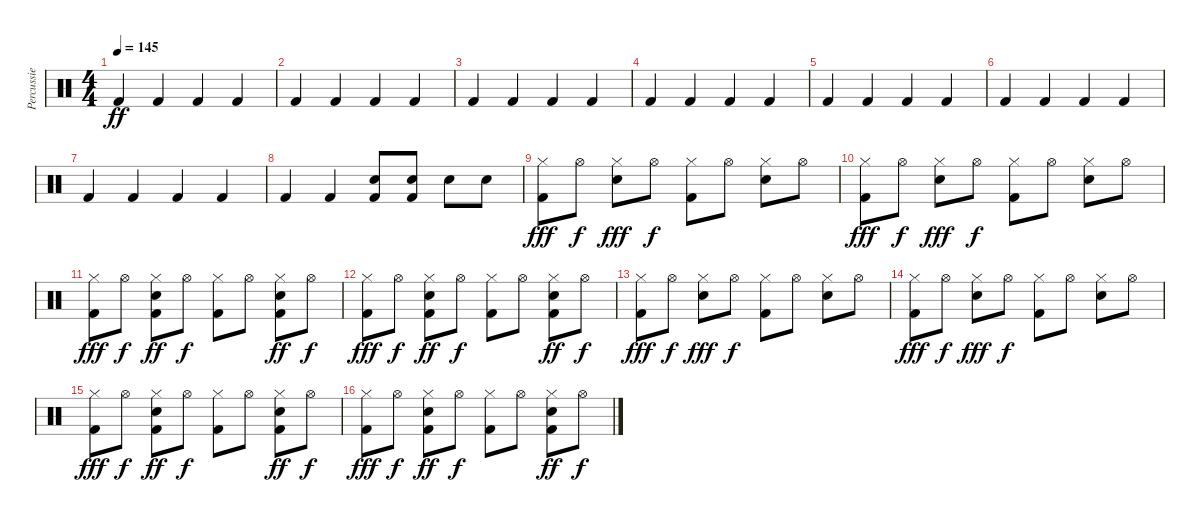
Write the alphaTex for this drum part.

\track ("Percussie" "Percussie") {instrument percussion}
\staff {score}
\articulation defaults
\ts (4 4)
\tempo 145
\clef neutral
\ks c "Kick (hit) 2".4{dy ff} "Kick (hit) 2".4 "Kick (hit) 2".4 "Kick (hit) 2".4
|
"Kick (hit) 2".4 "Kick (hit) 2".4 "Kick (hit) 2".4 "Kick (hit) 2".4 |
"Kick (hit) 2".4 "Kick (hit) 2".4 "Kick (hit) 2".4 "Kick (hit) 2".4 |
"Kick (hit) 2".4 "Kick (hit) 2".4 "Kick (hit) 2".4 "Kick (hit) 2".4 |
"Kick (hit) 2".4 "Kick (hit) 2".4 "Kick (hit) 2".4 "Kick (hit) 2".4 |
"Kick (hit) 2".4 "Kick (hit) 2".4 "Kick (hit) 2".4 "Kick (hit) 2".4 |
"Kick (hit) 2".4 "Kick (hit) 2".4 "Kick (hit) 2".4 "Kick (hit) 2".4 |
"Kick (hit) 2".4 "Kick (hit) 2".4 ("Kick (hit) 2" "Electric Snare (hit)").8 ("Kick (hit) 2" "Electric Snare (hit)").8 "Electric Snare (hit)".8 "Electric Snare (hit)".8 |
("Kick (hit) 2" "Hi-Hat (closed)").8{dy fff} "Hi-Hat (open)".8{dy f} ("Electric Snare (hit)" "Hi-Hat (closed)").8{dy fff} "Hi-Hat (open)".8{dy f} ("Kick (hit) 2" "Hi-Hat (closed)").8 "Hi-Hat (open)".8 ("Electric Snare (hit)" "Hi-Hat (closed)").8 "Hi-Hat (open)".8 |
("Kick (hit) 2" "Hi-Hat (closed)").8{dy fff} "Hi-Hat (open)".8{dy f} ("Electric Snare (hit)" "Hi-Hat (closed)").8{dy fff} "Hi-Hat (open)".8{dy f} ("Kick (hit) 2" "Hi-Hat (closed)").8 "Hi-Hat (open)".8 ("Electric Snare (hit)" "Hi-Hat (closed)").8 "Hi-Hat (open)".8 |
("Kick (hit) 2" "Hi-Hat (closed)").8{dy fff} "Hi-Hat (open)".8{dy f} ("Kick (hit) 2" "Hi-Hat (closed)" "Hand Clap (hit)").8{dy ff} "Hi-Hat (open)".8{dy f} ("Kick (hit) 2" "Hi-Hat (closed)").8 "Hi-Hat (open)".8 ("Kick (hit) 2" "Hi-Hat (closed)" "Hand Clap (hit)").8{dy ff} "Hi-Hat (open)".8{dy f} |
("Kick (hit) 2" "Hi-Hat (closed)").8{dy fff} "Hi-Hat (open)".8{dy f} ("Kick (hit) 2" "Hi-Hat (closed)" "Hand Clap (hit)").8{dy ff} "Hi-Hat (open)".8{dy f} ("Kick (hit) 2" "Hi-Hat (closed)").8 "Hi-Hat (open)".8 ("Kick (hit) 2" "Hi-Hat (closed)" "Hand Clap (hit)").8{dy ff} "Hi-Hat (open)".8{dy f} |
("Kick (hit) 2" "Hi-Hat (closed)").8{dy fff} "Hi-Hat (open)".8{dy f} ("Electric Snare (hit)" "Hi-Hat (closed)").8{dy fff} "Hi-Hat (open)".8{dy f} ("Kick (hit) 2" "Hi-Hat (closed)").8 "Hi-Hat (open)".8 ("Electric Snare (hit)" "Hi-Hat (closed)").8 "Hi-Hat (open)".8 |
("Kick (hit) 2" "Hi-Hat (closed)").8{dy fff} "Hi-Hat (open)".8{dy f} ("Electric Snare (hit)" "Hi-Hat (closed)").8{dy fff} "Hi-Hat (open)".8{dy f} ("Kick (hit) 2" "Hi-Hat (closed)").8 "Hi-Hat (open)".8 ("Electric Snare (hit)" "Hi-Hat (closed)").8 "Hi-Hat (open)".8 |
("Kick (hit) 2" "Hi-Hat (closed)").8{dy fff} "Hi-Hat (open)".8{dy f} ("Kick (hit) 2" "Hi-Hat (closed)" "Hand Clap (hit)").8{dy ff} "Hi-Hat (open)".8{dy f} ("Kick (hit) 2" "Hi-Hat (closed)").8 "Hi-Hat (open)".8 ("Kick (hit) 2" "Hi-Hat (closed)" "Hand Clap (hit)").8{dy ff} "Hi-Hat (open)".8{dy f} |
("Kick (hit) 2" "Hi-Hat (closed)").8{dy fff} "Hi-Hat (open)".8{dy f} ("Kick (hit) 2" "Hi-Hat (closed)" "Hand Clap (hit)").8{dy ff} "Hi-Hat (open)".8{dy f} ("Kick (hit) 2" "Hi-Hat (closed)").8 "Hi-Hat (open)".8 ("Kick (hit) 2" "Hi-Hat (closed)" "Hand Clap (hit)").8{dy ff} "Hi-Hat (open)".8{dy f}
